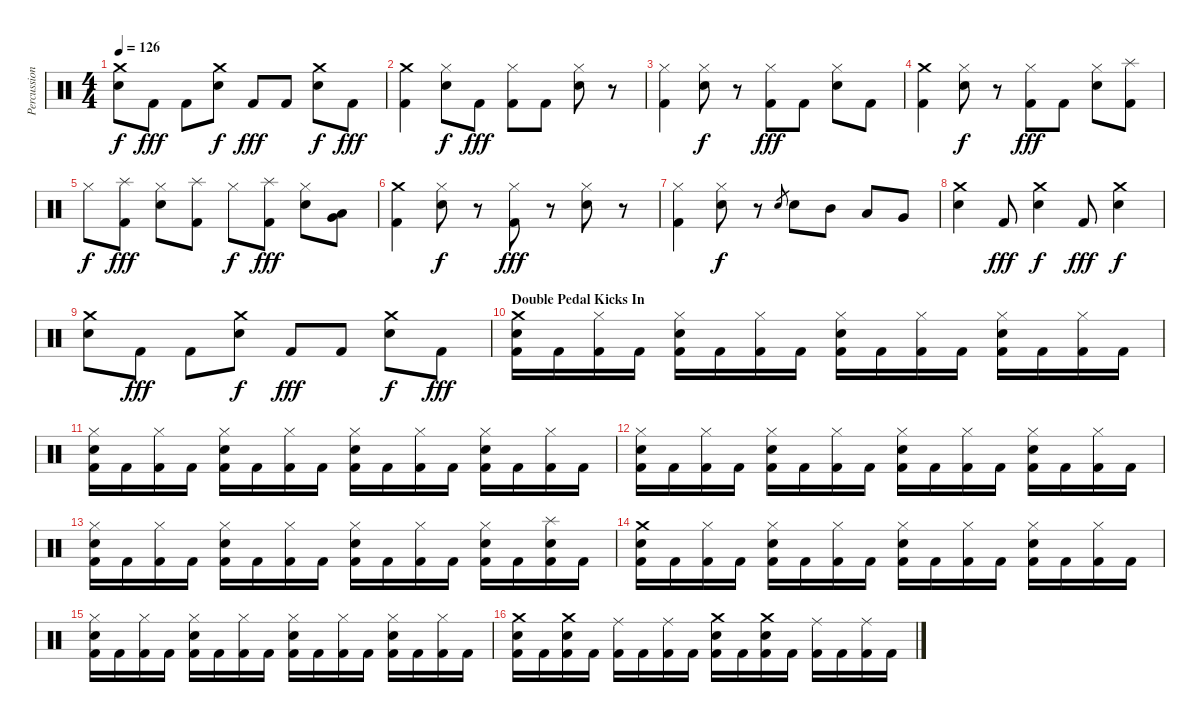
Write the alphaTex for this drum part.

\track ("Percussion" "Percussion") {instrument percussion}
\staff {score}
\articulation defaults
\ts (4 4)
\tempo 126
\clef neutral
\ks c
("Crash medium (hit)" "Electric Snare (hit)").8{dy f} "Kick (hit) 2".8{dy fff} "Kick (hit) 2".8 ("Crash medium (hit)" "Electric Snare (hit)").8{dy f} "Kick (hit) 2".8{dy fff} "Kick (hit) 2".8 ("Crash medium (hit)" "Electric Snare (hit)").8{dy f} "Kick (hit) 2".8{dy fff} |
("Crash medium (hit)" "Kick (hit) 2").4 ("Hi-Hat (closed)" "Electric Snare (hit)").8{dy f} "Kick (hit) 2".8{dy fff} ("Hi-Hat (closed)" "Kick (hit) 2").8 "Kick (hit) 2".8 ("Hi-Hat (closed)" "Electric Snare (hit)").8 r.8 |
("Hi-Hat (closed)" "Kick (hit) 2").4 ("Hi-Hat (closed)" "Electric Snare (hit)").8{dy f} r.8 ("Hi-Hat (closed)" "Kick (hit) 2").8{dy fff} "Kick (hit) 2".8 ("Hi-Hat (closed)" "Electric Snare (hit)").8 "Kick (hit) 2".8 |
("Crash medium (hit)" "Kick (hit) 2").4 ("Hi-Hat (closed)" "Electric Snare (hit)").8{dy f} r.8 ("Hi-Hat (closed)" "Kick (hit) 2").8{dy fff} "Kick (hit) 2".8 ("Hi-Hat (closed)" "Electric Snare (hit)").8 ("Splash (hit)" "Kick (hit) 2").8 |
"Hi-Hat (closed)".8{dy f} ("Splash (hit)" "Kick (hit) 2").8{dy fff} ("Hi-Hat (closed)" "Electric Snare (hit)").8 ("Splash (hit)" "Kick (hit) 2").8 "Hi-Hat (closed)".8{dy f} ("Splash (hit)" "Kick (hit) 2").8{dy fff} ("Hi-Hat (closed)" "Electric Snare (hit)").8 ("Very Low Tom (hit)" "Low Tom (hit)").8 |
("Crash medium (hit)" "Kick (hit) 2").4 ("Hi-Hat (closed)" "Electric Snare (hit)").8{dy f} r.8 ("Hi-Hat (closed)" "Kick (hit) 2").8{dy fff} r.8 ("Hi-Hat (closed)" "Electric Snare (hit)").8 r.8 |
("Hi-Hat (closed)" "Kick (hit) 2").4 ("Hi-Hat (closed)" "Electric Snare (hit)").8{dy f} r.8 "Electric Snare (hit)".8{gr} "Electric Snare (hit)".8 "Mid Tom (hit)".8 "Low Tom (hit)".8 "Very Low Tom (hit)".8 |
("Crash medium (hit)" "Electric Snare (hit)").4 "Kick (hit) 2".8{dy fff} ("Crash medium (hit)" "Electric Snare (hit)").4{dy f} "Kick (hit) 2".8{dy fff} ("Crash medium (hit)" "Electric Snare (hit)").4{dy f} |
("Crash medium (hit)" "Electric Snare (hit)").8 "Kick (hit) 2".8{dy fff} "Kick (hit) 2".8 ("Crash medium (hit)" "Electric Snare (hit)").8{dy f} "Kick (hit) 2".8{dy fff} "Kick (hit) 2".8 ("Crash medium (hit)" "Electric Snare (hit)").8{dy f} "Kick (hit) 2".8{dy fff} |
\section ("" "Double Pedal Kicks In")
("Crash medium (hit)" "Electric Snare (hit)" "Kick (hit) 2").16 "Kick (hit) 2".16 ("Hi-Hat (closed)" "Kick (hit) 2").16 "Kick (hit) 2".16 ("Hi-Hat (closed)" "Electric Snare (hit)" "Kick (hit) 2").16 "Kick (hit) 2".16 ("Hi-Hat (closed)" "Kick (hit) 2").16 "Kick (hit) 2".16 ("Hi-Hat (closed)" "Electric Snare (hit)" "Kick (hit) 2").16 "Kick (hit) 2".16 ("Hi-Hat (closed)" "Kick (hit) 2").16 "Kick (hit) 2".16 ("Hi-Hat (closed)" "Electric Snare (hit)" "Kick (hit) 2").16 "Kick (hit) 2".16 ("Hi-Hat (closed)" "Kick (hit) 2").16 "Kick (hit) 2".16 |
("Hi-Hat (closed)" "Electric Snare (hit)" "Kick (hit) 2").16 "Kick (hit) 2".16 ("Hi-Hat (closed)" "Kick (hit) 2").16 "Kick (hit) 2".16 ("Hi-Hat (closed)" "Electric Snare (hit)" "Kick (hit) 2").16 "Kick (hit) 2".16 ("Hi-Hat (closed)" "Kick (hit) 2").16 "Kick (hit) 2".16 ("Hi-Hat (closed)" "Electric Snare (hit)" "Kick (hit) 2").16 "Kick (hit) 2".16 ("Hi-Hat (closed)" "Kick (hit) 2").16 "Kick (hit) 2".16 ("Hi-Hat (closed)" "Electric Snare (hit)" "Kick (hit) 2").16 "Kick (hit) 2".16 ("Hi-Hat (closed)" "Kick (hit) 2").16 "Kick (hit) 2".16 |
("Hi-Hat (closed)" "Electric Snare (hit)" "Kick (hit) 2").16 "Kick (hit) 2".16 ("Hi-Hat (closed)" "Kick (hit) 2").16 "Kick (hit) 2".16 ("Hi-Hat (closed)" "Electric Snare (hit)" "Kick (hit) 2").16 "Kick (hit) 2".16 ("Hi-Hat (closed)" "Kick (hit) 2").16 "Kick (hit) 2".16 ("Hi-Hat (closed)" "Electric Snare (hit)" "Kick (hit) 2").16 "Kick (hit) 2".16 ("Hi-Hat (closed)" "Kick (hit) 2").16 "Kick (hit) 2".16 ("Hi-Hat (closed)" "Electric Snare (hit)" "Kick (hit) 2").16 "Kick (hit) 2".16 ("Hi-Hat (closed)" "Kick (hit) 2").16 "Kick (hit) 2".16 |
("Hi-Hat (closed)" "Electric Snare (hit)" "Kick (hit) 2").16 "Kick (hit) 2".16 ("Hi-Hat (closed)" "Kick (hit) 2").16 "Kick (hit) 2".16 ("Hi-Hat (closed)" "Electric Snare (hit)" "Kick (hit) 2").16 "Kick (hit) 2".16 ("Hi-Hat (closed)" "Kick (hit) 2").16 "Kick (hit) 2".16 ("Hi-Hat (closed)" "Electric Snare (hit)" "Kick (hit) 2").16 "Kick (hit) 2".16 ("Hi-Hat (closed)" "Kick (hit) 2").16 "Kick (hit) 2".16 ("Hi-Hat (closed)" "Electric Snare (hit)" "Kick (hit) 2").16 "Kick (hit) 2".16 ("Splash (hit)" "Electric Snare (hit)" "Kick (hit) 2").16 "Kick (hit) 2".16 |
("Crash medium (hit)" "Electric Snare (hit)" "Kick (hit) 2").16 "Kick (hit) 2".16 ("Hi-Hat (closed)" "Kick (hit) 2").16 "Kick (hit) 2".16 ("Hi-Hat (closed)" "Electric Snare (hit)" "Kick (hit) 2").16 "Kick (hit) 2".16 ("Hi-Hat (closed)" "Kick (hit) 2").16 "Kick (hit) 2".16 ("Hi-Hat (closed)" "Electric Snare (hit)" "Kick (hit) 2").16 "Kick (hit) 2".16 ("Hi-Hat (closed)" "Kick (hit) 2").16 "Kick (hit) 2".16 ("Hi-Hat (closed)" "Electric Snare (hit)" "Kick (hit) 2").16 "Kick (hit) 2".16 ("Hi-Hat (closed)" "Kick (hit) 2").16 "Kick (hit) 2".16 |
("Hi-Hat (closed)" "Electric Snare (hit)" "Kick (hit) 2").16 "Kick (hit) 2".16 ("Hi-Hat (closed)" "Kick (hit) 2").16 "Kick (hit) 2".16 ("Hi-Hat (closed)" "Electric Snare (hit)" "Kick (hit) 2").16 "Kick (hit) 2".16 ("Hi-Hat (closed)" "Kick (hit) 2").16 "Kick (hit) 2".16 ("Hi-Hat (closed)" "Electric Snare (hit)" "Kick (hit) 2").16 "Kick (hit) 2".16 ("Hi-Hat (closed)" "Kick (hit) 2").16 "Kick (hit) 2".16 ("Hi-Hat (closed)" "Electric Snare (hit)" "Kick (hit) 2").16 "Kick (hit) 2".16 ("Hi-Hat (closed)" "Kick (hit) 2").16 "Kick (hit) 2".16 |
("Crash medium (hit)" "Electric Snare (hit)" "Kick (hit) 2").16 "Kick (hit) 2".16 ("Crash medium (hit)" "Electric Snare (hit)" "Kick (hit) 2").16 "Kick (hit) 2".16 ("Ride (middle)" "Kick (hit) 2").16 "Kick (hit) 2".16 ("Ride (middle)" "Kick (hit) 2").16 "Kick (hit) 2".16 ("Crash medium (hit)" "Electric Snare (hit)" "Kick (hit) 2").16 "Kick (hit) 2".16 ("Crash medium (hit)" "Electric Snare (hit)" "Kick (hit) 2").16 "Kick (hit) 2".16 ("Ride (middle)" "Kick (hit) 2").16 "Kick (hit) 2".16 ("Ride (middle)" "Kick (hit) 2").16 "Kick (hit) 2".16
